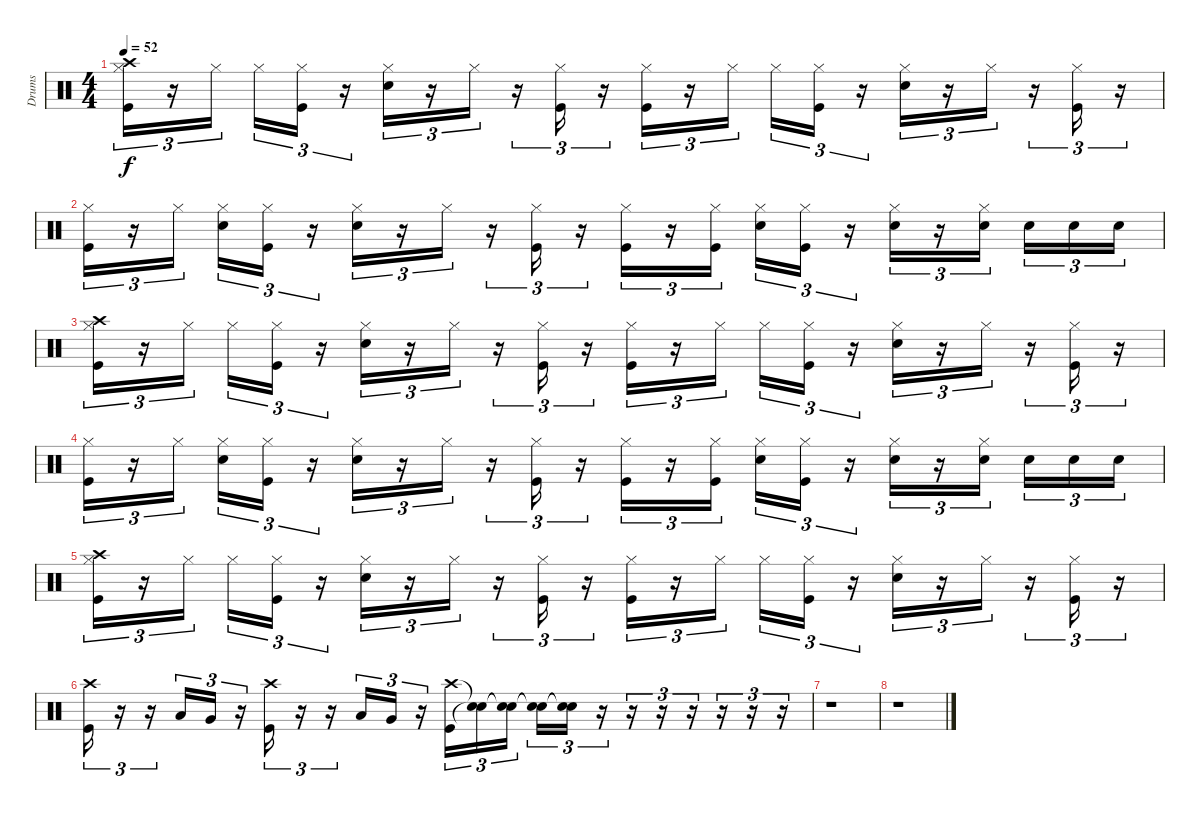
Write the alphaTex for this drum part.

\track ("Drums" "Drums") {instrument percussion}
\staff {score}
\articulation defaults
\ts (4 4)
\tempo 52
\clef neutral
\ks c
("Hi-Hat (closed)" "Crash high (hit)" "Kick (hit)").16{tu (3 2) dy f} r.16{tu (3 2)} "Hi-Hat (closed)".16{tu (3 2)} "Hi-Hat (closed)".16{tu (3 2)} ("Hi-Hat (closed)" "Kick (hit)").16{tu (3 2)} r.16{tu (3 2)} ("Hi-Hat (closed)" "Electric Snare (hit)").16{tu (3 2)} r.16{tu (3 2)} "Hi-Hat (closed)".16{tu (3 2)} r.16{tu (3 2)} ("Hi-Hat (closed)" "Kick (hit)").16{tu (3 2)} r.16{tu (3 2)} ("Hi-Hat (closed)" "Kick (hit)").16{tu (3 2)} r.16{tu (3 2)} "Hi-Hat (closed)".16{tu (3 2)} "Hi-Hat (closed)".16{tu (3 2)} ("Hi-Hat (closed)" "Kick (hit)").16{tu (3 2)} r.16{tu (3 2)} ("Hi-Hat (closed)" "Electric Snare (hit)").16{tu (3 2)} r.16{tu (3 2)} "Hi-Hat (closed)".16{tu (3 2)} r.16{tu (3 2)} ("Hi-Hat (closed)" "Kick (hit)").16{tu (3 2)} r.16{tu (3 2)} |
("Hi-Hat (closed)" "Kick (hit)").16{tu (3 2)} r.16{tu (3 2)} "Hi-Hat (closed)".16{tu (3 2)} ("Hi-Hat (closed)" "Snare (hit) 2").16{tu (3 2)} ("Hi-Hat (closed)" "Kick (hit)").16{tu (3 2)} r.16{tu (3 2)} ("Hi-Hat (closed)" "Electric Snare (hit)").16{tu (3 2)} r.16{tu (3 2)} "Hi-Hat (closed)".16{tu (3 2)} r.16{tu (3 2)} ("Hi-Hat (closed)" "Kick (hit)").16{tu (3 2)} r.16{tu (3 2)} ("Hi-Hat (closed)" "Kick (hit)").16{tu (3 2)} r.16{tu (3 2)} ("Hi-Hat (closed)" "Kick (hit)").16{tu (3 2)} ("Hi-Hat (closed)" "Snare (hit) 2").16{tu (3 2)} ("Hi-Hat (closed)" "Kick (hit)").16{tu (3 2)} r.16{tu (3 2)} ("Hi-Hat (closed)" "Electric Snare (hit)").16{tu (3 2)} r.16{tu (3 2)} ("Hi-Hat (closed)" "Snare (hit) 2").16{tu (3 2)} "Snare (hit) 2".16{tu (3 2)} "Snare (hit) 2".16{tu (3 2)} "Snare (hit) 2".16{tu (3 2)} |
("Hi-Hat (closed)" "Crash high (hit)" "Kick (hit)").16{tu (3 2)} r.16{tu (3 2)} "Hi-Hat (closed)".16{tu (3 2)} "Hi-Hat (closed)".16{tu (3 2)} ("Hi-Hat (closed)" "Kick (hit)").16{tu (3 2)} r.16{tu (3 2)} ("Hi-Hat (closed)" "Electric Snare (hit)").16{tu (3 2)} r.16{tu (3 2)} "Hi-Hat (closed)".16{tu (3 2)} r.16{tu (3 2)} ("Hi-Hat (closed)" "Kick (hit)").16{tu (3 2)} r.16{tu (3 2)} ("Hi-Hat (closed)" "Kick (hit)").16{tu (3 2)} r.16{tu (3 2)} "Hi-Hat (closed)".16{tu (3 2)} "Hi-Hat (closed)".16{tu (3 2)} ("Hi-Hat (closed)" "Kick (hit)").16{tu (3 2)} r.16{tu (3 2)} ("Hi-Hat (closed)" "Electric Snare (hit)").16{tu (3 2)} r.16{tu (3 2)} "Hi-Hat (closed)".16{tu (3 2)} r.16{tu (3 2)} ("Hi-Hat (closed)" "Kick (hit)").16{tu (3 2)} r.16{tu (3 2)} |
("Hi-Hat (closed)" "Kick (hit)").16{tu (3 2)} r.16{tu (3 2)} "Hi-Hat (closed)".16{tu (3 2)} ("Hi-Hat (closed)" "Snare (hit) 2").16{tu (3 2)} ("Hi-Hat (closed)" "Kick (hit)").16{tu (3 2)} r.16{tu (3 2)} ("Hi-Hat (closed)" "Electric Snare (hit)").16{tu (3 2)} r.16{tu (3 2)} "Hi-Hat (closed)".16{tu (3 2)} r.16{tu (3 2)} ("Hi-Hat (closed)" "Kick (hit)").16{tu (3 2)} r.16{tu (3 2)} ("Hi-Hat (closed)" "Kick (hit)").16{tu (3 2)} r.16{tu (3 2)} ("Hi-Hat (closed)" "Kick (hit)").16{tu (3 2)} ("Hi-Hat (closed)" "Snare (hit) 2").16{tu (3 2)} ("Hi-Hat (closed)" "Kick (hit)").16{tu (3 2)} r.16{tu (3 2)} ("Hi-Hat (closed)" "Electric Snare (hit)").16{tu (3 2)} r.16{tu (3 2)} ("Hi-Hat (closed)" "Snare (hit) 2").16{tu (3 2)} "Snare (hit) 2".16{tu (3 2)} "Snare (hit) 2".16{tu (3 2)} "Snare (hit) 2".16{tu (3 2)} |
("Hi-Hat (closed)" "Crash high (hit)" "Kick (hit)").16{tu (3 2)} r.16{tu (3 2)} "Hi-Hat (closed)".16{tu (3 2)} "Hi-Hat (closed)".16{tu (3 2)} ("Hi-Hat (closed)" "Kick (hit)").16{tu (3 2)} r.16{tu (3 2)} ("Hi-Hat (closed)" "Electric Snare (hit)").16{tu (3 2)} r.16{tu (3 2)} "Hi-Hat (closed)".16{tu (3 2)} r.16{tu (3 2)} ("Hi-Hat (closed)" "Kick (hit)").16{tu (3 2)} r.16{tu (3 2)} ("Hi-Hat (closed)" "Kick (hit)").16{tu (3 2)} r.16{tu (3 2)} "Hi-Hat (closed)".16{tu (3 2)} "Hi-Hat (closed)".16{tu (3 2)} ("Hi-Hat (closed)" "Kick (hit)").16{tu (3 2)} r.16{tu (3 2)} ("Hi-Hat (closed)" "Electric Snare (hit)").16{tu (3 2)} r.16{tu (3 2)} "Hi-Hat (closed)".16{tu (3 2)} r.16{tu (3 2)} ("Hi-Hat (closed)" "Kick (hit)").16{tu (3 2)} r.16{tu (3 2)} |
("Crash high (hit)" "Kick (hit)").16{tu (3 2)} r.16{tu (3 2)} r.16{tu (3 2)} "Low Tom (hit)".16{tu (3 2)} "Very Low Tom (hit)".16{tu (3 2)} r.16{tu (3 2)} ("Crash high (hit)" "Kick (hit)").16{tu (3 2)} r.16{tu (3 2)} r.16{tu (3 2)} "Low Tom (hit)".16{tu (3 2)} "Very Low Tom (hit)".16{tu (3 2)} r.16{tu (3 2)} ("Crash high (hit)" "Kick (hit)").16{tu (3 2)} ("Snare (hit)"{t} "Snare (hit)"{t}).16{tu (3 2)} ("Snare (hit)"{t} "Snare (hit)"{t}).16{tu (3 2)} ("Snare (hit)"{t} "Snare (hit)"{t}).16{tu (3 2)} ("Snare (hit)"{t} "Snare (hit)"{t}).16{tu (3 2)} r.16{tu (3 2)} r.16{tu (3 2)} r.16{tu (3 2)} r.16{tu (3 2)} r.16{tu (3 2)} r.16{tu (3 2)} r.16{tu (3 2)} |
r.1 |
r.1
